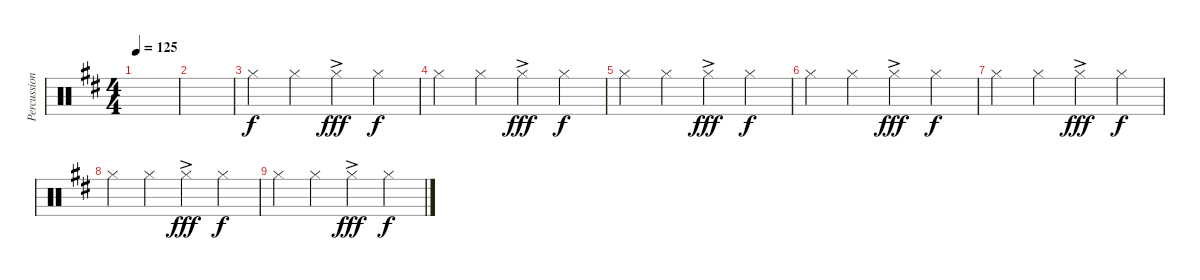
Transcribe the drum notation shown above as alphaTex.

\track ("Percussion" "Percussion") {instrument percussion}
\staff {score}
\articulation defaults
\ts (4 4)
\tempo 125
\clef neutral
\ks d
|
|
"Hi-Hat (closed)".4 "Hi-Hat (closed)".4 "Hi-Hat (closed)"{ac}.4{dy fff} "Hi-Hat (closed)".4{dy f} |
"Hi-Hat (closed)".4 "Hi-Hat (closed)".4 "Hi-Hat (closed)"{ac}.4{dy fff} "Hi-Hat (closed)".4{dy f} |
"Hi-Hat (closed)".4 "Hi-Hat (closed)".4 "Hi-Hat (closed)"{ac}.4{dy fff} "Hi-Hat (closed)".4{dy f} |
"Hi-Hat (closed)".4 "Hi-Hat (closed)".4 "Hi-Hat (closed)"{ac}.4{dy fff} "Hi-Hat (closed)".4{dy f} |
"Hi-Hat (closed)".4 "Hi-Hat (closed)".4 "Hi-Hat (closed)"{ac}.4{dy fff} "Hi-Hat (closed)".4{dy f} |
"Hi-Hat (closed)".4 "Hi-Hat (closed)".4 "Hi-Hat (closed)"{ac}.4{dy fff} "Hi-Hat (closed)".4{dy f} |
"Hi-Hat (closed)".4 "Hi-Hat (closed)".4 "Hi-Hat (closed)"{ac}.4{dy fff} "Hi-Hat (closed)".4{dy f}
